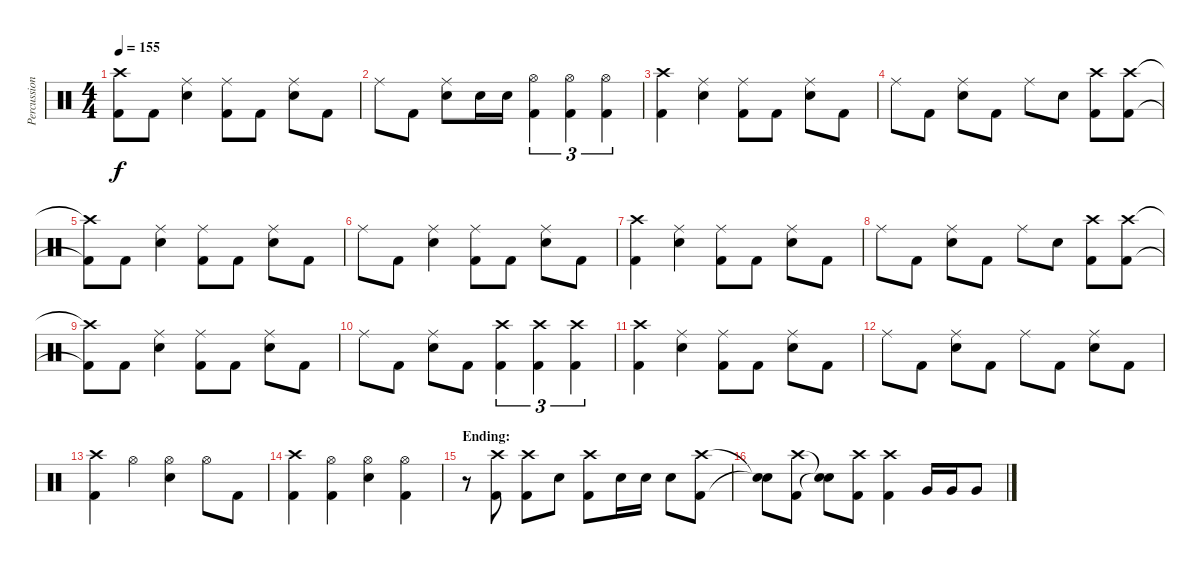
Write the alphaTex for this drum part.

\track ("Percussion" "Percussion") {instrument percussion}
\staff {score}
\articulation defaults
\ts (4 4)
\tempo 155
\clef neutral
\ks c
("Crash high (hit)"{t} "Kick (hit) 2"{t}).8{dy f} "Kick (hit) 2".8 ("Ride (middle)" "Electric Snare (hit)").4 ("Ride (middle)" "Kick (hit) 2").8 "Kick (hit) 2".8 ("Ride (middle)" "Electric Snare (hit)").8 "Kick (hit) 2".8 |
"Ride (middle)".8 "Kick (hit) 2".8 ("Ride (middle)" "Electric Snare (hit)").8 "Electric Snare (hit)".16 "Electric Snare (hit)".16 ("Hi-Hat (open)" "Kick (hit) 2").4{tu (3 2)} ("Hi-Hat (open)" "Kick (hit) 2").4{tu (3 2)} ("Hi-Hat (open)" "Kick (hit) 2").4{tu (3 2)} |
("Crash high (hit)" "Kick (hit) 2").4 ("Ride (middle)" "Electric Snare (hit)").4 ("Ride (middle)" "Kick (hit) 2").8 "Kick (hit) 2".8 ("Ride (middle)" "Electric Snare (hit)").8 "Kick (hit) 2".8 |
"Ride (middle)".8 "Kick (hit) 2".8 ("Ride (middle)" "Electric Snare (hit)").8 "Kick (hit) 2".8 "Ride (middle)".8 "Electric Snare (hit)".8 ("Crash high (hit)" "Kick (hit) 2").8 ("Crash high (hit)" "Kick (hit) 2").8 |
("Crash high (hit)"{t} "Kick (hit) 2"{t}).8 "Kick (hit) 2".8 ("Ride (middle)" "Electric Snare (hit)").4 ("Ride (middle)" "Kick (hit) 2").8 "Kick (hit) 2".8 ("Ride (middle)" "Electric Snare (hit)").8 "Kick (hit) 2".8 |
"Ride (middle)".8 "Kick (hit) 2".8 ("Ride (middle)" "Electric Snare (hit)").4 ("Ride (middle)" "Kick (hit) 2").8 "Kick (hit) 2".8 ("Ride (middle)" "Electric Snare (hit)").8 "Kick (hit) 2".8 |
("Crash high (hit)" "Kick (hit) 2").4 ("Ride (middle)" "Electric Snare (hit)").4 ("Ride (middle)" "Kick (hit) 2").8 "Kick (hit) 2".8 ("Ride (middle)" "Electric Snare (hit)").8 "Kick (hit) 2".8 |
"Ride (middle)".8 "Kick (hit) 2".8 ("Ride (middle)" "Electric Snare (hit)").8 "Kick (hit) 2".8 "Ride (middle)".8 "Electric Snare (hit)".8 ("Crash high (hit)" "Kick (hit) 2").8 ("Crash high (hit)" "Kick (hit) 2").8 |
("Crash high (hit)"{t} "Kick (hit) 2"{t}).8 "Kick (hit) 2".8 ("Ride (middle)" "Electric Snare (hit)").4 ("Ride (middle)" "Kick (hit) 2").8 "Kick (hit) 2".8 ("Ride (middle)" "Electric Snare (hit)").8 "Kick (hit) 2".8 |
"Ride (middle)".8 "Kick (hit) 2".8 ("Ride (middle)" "Electric Snare (hit)").8 "Kick (hit) 2".8 ("Crash high (hit)" "Kick (hit) 2").4{tu (3 2)} ("Crash high (hit)" "Kick (hit) 2").4{tu (3 2)} ("Crash high (hit)" "Kick (hit) 2").4{tu (3 2)} |
("Crash high (hit)" "Kick (hit) 2").4 ("Ride (middle)" "Electric Snare (hit)").4 ("Ride (middle)" "Kick (hit) 2").8 "Kick (hit) 2".8 ("Ride (middle)" "Electric Snare (hit)").8 "Kick (hit) 2".8 |
"Ride (middle)".8 "Kick (hit) 2".8 ("Ride (middle)" "Electric Snare (hit)").8 "Kick (hit) 2".8 "Ride (middle)".8 "Kick (hit) 2".8 ("Ride (middle)" "Electric Snare (hit)").8 "Kick (hit) 2".8 |
("Crash high (hit)" "Kick (hit) 2").4 "Hi-Hat (open)".4 ("Hi-Hat (open)" "Electric Snare (hit)").4 "Hi-Hat (open)".8 "Kick (hit) 2".8 |
("Crash high (hit)" "Kick (hit) 2").4 ("Hi-Hat (open)" "Kick (hit) 2").4 ("Hi-Hat (open)" "Electric Snare (hit)").4 ("Hi-Hat (open)" "Kick (hit) 2").4 |
\section ("" "Ending:")
r.8 ("Crash high (hit)" "Kick (hit) 2").8 ("Crash high (hit)" "Kick (hit) 2").8 "Electric Snare (hit)".8 ("Crash high (hit)" "Kick (hit) 2").8 "Electric Snare (hit)".16 "Electric Snare (hit)".16 "Electric Snare (hit)".8 ("Crash high (hit)" "Kick (hit) 2").8 |
("Snare (hit)"{t} "Snare (hit)"{t}).8 ("Crash high (hit)" "Kick (hit) 2").8 ("Snare (hit)"{t} "Snare (hit)"{t}).8 ("Crash high (hit)" "Kick (hit) 2").8 ("Crash high (hit)" "Kick (hit) 2").4 "Very Low Tom (hit)".16 "Very Low Tom (hit)".16 "Very Low Tom (hit)".8
